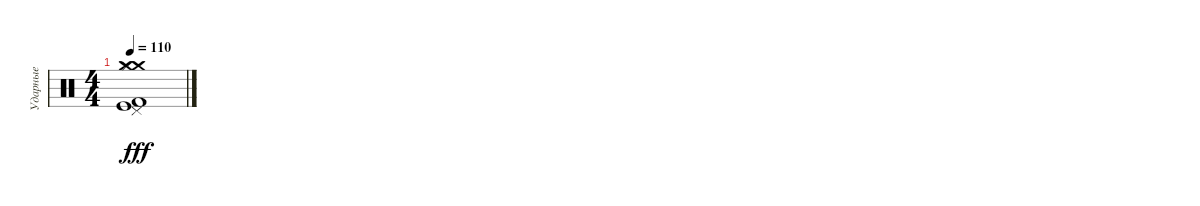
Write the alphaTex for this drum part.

\track ("Ударные" "Ударные") {instrument percussion}
\staff {score}
\articulation defaults
\ts (4 4)
\tempo 110
\clef neutral
\ks c
("Crash medium (hit)" "Crash medium (hit)" "Kick (hit) 2" "Kick (hit)" "Hi-Hat (closed)" "Pedal Hi-Hat (hit)").1{dy fff}
